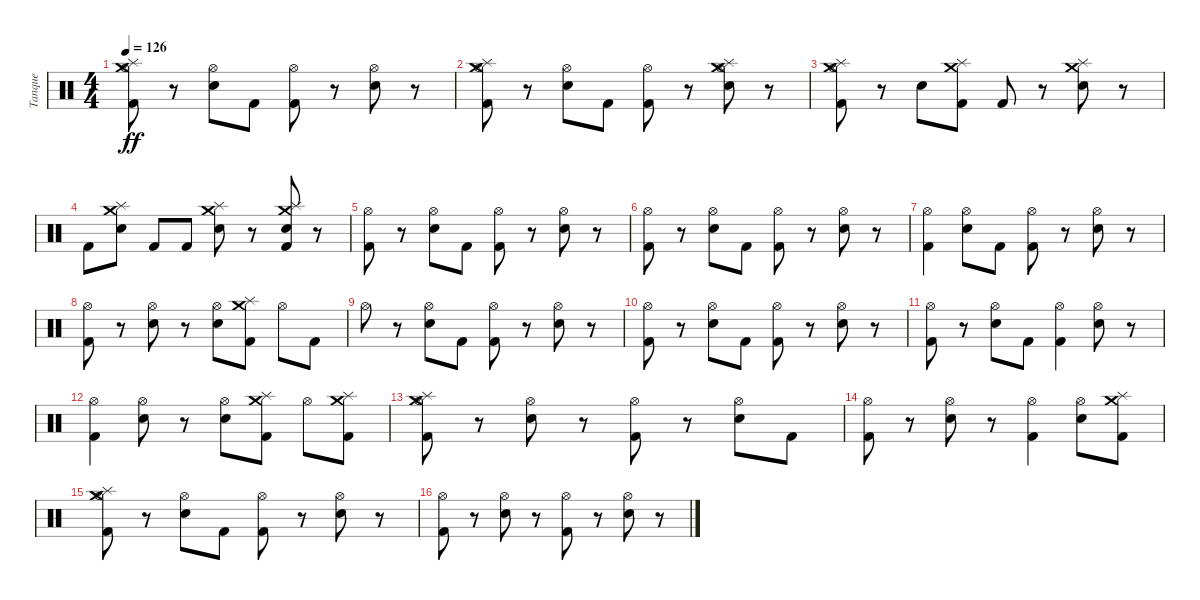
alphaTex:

\track ("Tanque" "Tanque") {instrument percussion}
\staff {score}
\articulation defaults
\ts (4 4)
\tempo 126
\clef neutral
\ks c
("Kick (hit) 2" "Splash (hit)" "Crash medium (hit)" "Hi-Hat (open)").8{dy ff} r.8 ("Snare (hit) 2" "Hi-Hat (open)").8 "Kick (hit) 2".8 ("Kick (hit) 2" "Hi-Hat (open)").8 r.8 ("Snare (hit) 2" "Hi-Hat (open)").8 r.8 |
("Kick (hit) 2" "Splash (hit)" "Crash medium (hit)" "Hi-Hat (open)").8 r.8 ("Snare (hit) 2" "Hi-Hat (open)").8 "Kick (hit) 2".8 ("Kick (hit) 2" "Hi-Hat (open)").8 r.8 ("Hi-Hat (open)" "Crash medium (hit)" "Splash (hit)" "Snare (hit) 2").8 r.8 |
("Hi-Hat (open)" "Crash medium (hit)" "Splash (hit)" "Kick (hit) 2").8 r.8 "Snare (hit) 2".8 ("Splash (hit)" "Crash medium (hit)" "Kick (hit) 2").8 "Kick (hit) 2".8 r.8 ("Crash medium (hit)" "Splash (hit)" "Snare (hit) 2").8 r.8 |
"Kick (hit) 2".8 ("Splash (hit)" "Crash medium (hit)" "Snare (hit) 2").8 "Kick (hit) 2".8 "Kick (hit) 2".8 ("Splash (hit)" "Crash medium (hit)" "Snare (hit) 2").8 r.8 ("Splash (hit)" "Crash medium (hit)" "Snare (hit) 2" "Kick (hit) 2").8 r.8 |
("Kick (hit) 2" "Hi-Hat (open)").8 r.8 ("Snare (hit) 2" "Hi-Hat (open)").8 "Kick (hit) 2".8 ("Kick (hit) 2" "Hi-Hat (open)").8 r.8 ("Snare (hit) 2" "Hi-Hat (open)").8 r.8 |
("Kick (hit) 2" "Hi-Hat (open)").8 r.8 ("Snare (hit) 2" "Hi-Hat (open)").8 "Kick (hit) 2".8 ("Kick (hit) 2" "Hi-Hat (open)").8 r.8 ("Snare (hit) 2" "Hi-Hat (open)").8 r.8 |
("Kick (hit) 2" "Hi-Hat (open)").4 ("Snare (hit) 2" "Hi-Hat (open)").8 "Kick (hit) 2".8 ("Kick (hit) 2" "Hi-Hat (open)").8 r.8 ("Snare (hit) 2" "Hi-Hat (open)").8 r.8 |
("Kick (hit) 2" "Hi-Hat (open)").8 r.8 ("Snare (hit) 2" "Hi-Hat (open)").8 r.8 ("Hi-Hat (open)" "Snare (hit) 2").8 ("Splash (hit)" "Crash medium (hit)" "Kick (hit) 2").8 "Hi-Hat (open)".8 "Kick (hit) 2".8 |
"Hi-Hat (open)".8 r.8 ("Hi-Hat (open)" "Snare (hit) 2").8 "Kick (hit) 2".8 ("Hi-Hat (open)" "Kick (hit) 2").8 r.8 ("Hi-Hat (open)" "Snare (hit) 2").8 r.8 |
("Hi-Hat (open)" "Kick (hit) 2").8 r.8 ("Hi-Hat (open)" "Snare (hit) 2").8 "Kick (hit) 2".8 ("Hi-Hat (open)" "Kick (hit) 2").8 r.8 ("Hi-Hat (open)" "Snare (hit) 2").8 r.8 |
("Hi-Hat (open)" "Kick (hit) 2").8 r.8 ("Hi-Hat (open)" "Snare (hit) 2").8 "Kick (hit) 2".8 ("Hi-Hat (open)" "Kick (hit) 2").4 ("Hi-Hat (open)" "Snare (hit) 2").8 r.8 |
("Hi-Hat (open)" "Kick (hit) 2").4 ("Hi-Hat (open)" "Snare (hit) 2").8 r.8 ("Hi-Hat (open)" "Snare (hit) 2").8 ("Splash (hit)" "Crash medium (hit)" "Kick (hit) 2").8 "Hi-Hat (open)".8 ("Kick (hit) 2" "Splash (hit)" "Crash medium (hit)").8 |
("Hi-Hat (open)" "Splash (hit)" "Crash medium (hit)" "Kick (hit) 2").8 r.8 ("Hi-Hat (open)" "Snare (hit) 2").8 r.8 ("Hi-Hat (open)" "Kick (hit) 2").8 r.8 ("Hi-Hat (open)" "Snare (hit) 2").8 "Kick (hit) 2".8 |
("Hi-Hat (open)" "Kick (hit) 2").8 r.8 ("Hi-Hat (open)" "Snare (hit) 2").8 r.8 ("Kick (hit) 2" "Hi-Hat (open)").4 ("Snare (hit) 2" "Hi-Hat (open)").8 ("Kick (hit) 2" "Crash medium (hit)" "Splash (hit)").8 |
("Kick (hit) 2" "Crash medium (hit)" "Splash (hit)" "Hi-Hat (open)").8 r.8 ("Snare (hit) 2" "Hi-Hat (open)").8 "Kick (hit) 2".8 ("Kick (hit) 2" "Hi-Hat (open)").8 r.8 ("Snare (hit) 2" "Hi-Hat (open)").8 r.8 |
("Kick (hit) 2" "Hi-Hat (open)").8 r.8 ("Snare (hit) 2" "Hi-Hat (open)").8 r.8 ("Kick (hit) 2" "Hi-Hat (open)").8 r.8 ("Snare (hit) 2" "Hi-Hat (open)").8 r.8
